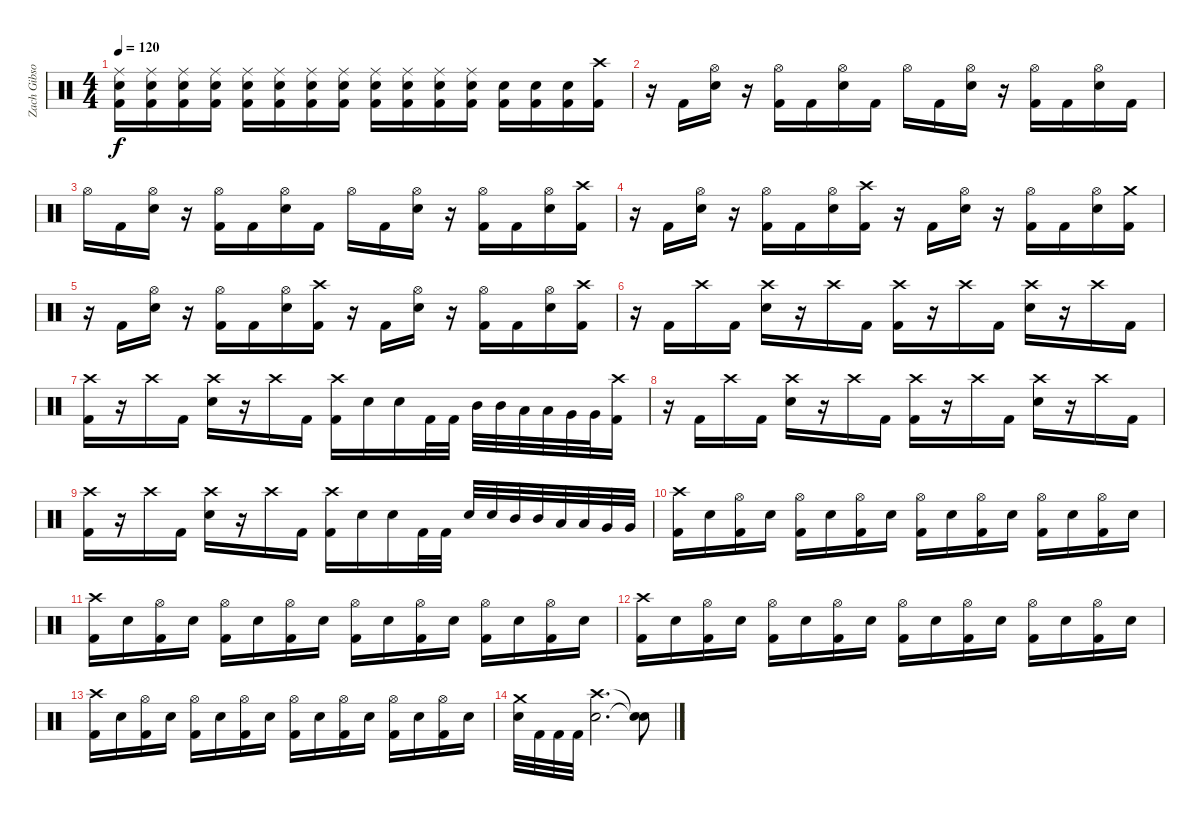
\track ("Zach Gibson" "Zach Gibso") {instrument percussion}
\staff {score}
\articulation defaults
\ts (4 4)
\tempo 120
\clef neutral
\ks c
("Ride (middle)" "Electric Snare (hit)" "Kick (hit) 2").16{dy f} ("Ride (middle)" "Electric Snare (hit)" "Kick (hit) 2").16 ("Ride (middle)" "Electric Snare (hit)" "Kick (hit) 2").16 ("Ride (middle)" "Electric Snare (hit)" "Kick (hit) 2").16 ("Ride (middle)" "Electric Snare (hit)" "Kick (hit) 2").16 ("Ride (middle)" "Electric Snare (hit)" "Kick (hit) 2").16 ("Ride (middle)" "Electric Snare (hit)" "Kick (hit) 2").16 ("Ride (middle)" "Electric Snare (hit)" "Kick (hit) 2").16 ("Ride (middle)" "Electric Snare (hit)" "Kick (hit) 2").16 ("Ride (middle)" "Electric Snare (hit)" "Kick (hit) 2").16 ("Ride (middle)" "Electric Snare (hit)" "Kick (hit) 2").16 ("Ride (middle)" "Electric Snare (hit)" "Kick (hit) 2").16 ("Electric Snare (hit)" "Kick (hit) 2").16 ("Electric Snare (hit)" "Kick (hit) 2").16 ("Electric Snare (hit)" "Kick (hit) 2").16 ("Crash high (hit)" "Kick (hit) 2").16 |
r.16 "Kick (hit) 2".16 ("Hi-Hat (open)" "Electric Snare (hit)").16 r.16 ("Hi-Hat (open)" "Kick (hit) 2").16 "Kick (hit) 2".16 ("Hi-Hat (open)" "Electric Snare (hit)").16 "Kick (hit) 2".16 "Hi-Hat (open)".16 "Kick (hit) 2".16 ("Hi-Hat (open)" "Electric Snare (hit)").16 r.16 ("Hi-Hat (open)" "Kick (hit) 2").16 "Kick (hit) 2".16 ("Hi-Hat (open)" "Electric Snare (hit)").16 "Kick (hit) 2".16 |
"Hi-Hat (open)".16 "Kick (hit) 2".16 ("Hi-Hat (open)" "Electric Snare (hit)").16 r.16 ("Hi-Hat (open)" "Kick (hit) 2").16 "Kick (hit) 2".16 ("Hi-Hat (open)" "Electric Snare (hit)").16 "Kick (hit) 2".16 "Hi-Hat (open)".16 "Kick (hit) 2".16 ("Hi-Hat (open)" "Electric Snare (hit)").16 r.16 ("Hi-Hat (open)" "Kick (hit) 2").16 "Kick (hit) 2".16 ("Hi-Hat (open)" "Electric Snare (hit)").16 ("Crash high (hit)" "Kick (hit) 2").16 |
r.16 "Kick (hit) 2".16 ("Hi-Hat (open)" "Electric Snare (hit)").16 r.16 ("Hi-Hat (open)" "Kick (hit) 2").16 "Kick (hit) 2".16 ("Hi-Hat (open)" "Electric Snare (hit)").16 ("Crash high (hit)" "Kick (hit) 2").16 r.16 "Kick (hit) 2".16 ("Hi-Hat (open)" "Electric Snare (hit)").16 r.16 ("Hi-Hat (open)" "Kick (hit) 2").16 "Kick (hit) 2".16 ("Hi-Hat (open)" "Electric Snare (hit)").16 ("Crash medium (hit)" "Kick (hit) 2").16 |
r.16 "Kick (hit) 2".16 ("Hi-Hat (open)" "Electric Snare (hit)").16 r.16 ("Hi-Hat (open)" "Kick (hit) 2").16 "Kick (hit) 2".16 ("Hi-Hat (open)" "Electric Snare (hit)").16 ("Crash high (hit)" "Kick (hit) 2").16 r.16 "Kick (hit) 2".16 ("Hi-Hat (open)" "Electric Snare (hit)").16 r.16 ("Hi-Hat (open)" "Kick (hit) 2").16 "Kick (hit) 2".16 ("Hi-Hat (open)" "Electric Snare (hit)").16 ("Crash high (hit)" "Kick (hit) 2").16 |
r.16 "Kick (hit) 2".16 "Crash high (hit)".16 "Kick (hit) 2".16 ("Crash high (hit)" "Electric Snare (hit)").16 r.16 "Crash high (hit)".16 "Kick (hit) 2".16 ("Crash high (hit)" "Kick (hit) 2").16 r.16 "Crash high (hit)".16 "Kick (hit) 2".16 ("Crash high (hit)" "Electric Snare (hit)").16 r.16 "Crash high (hit)".16 "Kick (hit) 2".16 |
("Crash high (hit)" "Kick (hit) 2").16 r.16 "Crash high (hit)".16 "Kick (hit) 2".16 ("Crash high (hit)" "Electric Snare (hit)").16 r.16 "Crash high (hit)".16 "Kick (hit) 2".16 ("Crash high (hit)" "Kick (hit) 2").16 "Electric Snare (hit)".16 "Electric Snare (hit)".16 "Kick (hit) 2".32 "Kick (hit) 2".32 "Mid Tom (hit)".32 "Mid Tom (hit)".32 "Low Tom (hit)".32 "Low Tom (hit)".32 "Very Low Tom (hit)".32 "Very Low Tom (hit)".32 ("Crash high (hit)" "Kick (hit) 2").16 |
r.16 "Kick (hit) 2".16 "Crash high (hit)".16 "Kick (hit) 2".16 ("Crash high (hit)" "Electric Snare (hit)").16 r.16 "Crash high (hit)".16 "Kick (hit) 2".16 ("Crash high (hit)" "Kick (hit) 2").16 r.16 "Crash high (hit)".16 "Kick (hit) 2".16 ("Crash high (hit)" "Electric Snare (hit)").16 r.16 "Crash high (hit)".16 "Kick (hit) 2".16 |
("Crash high (hit)" "Kick (hit) 2").16 r.16 "Crash high (hit)".16 "Kick (hit) 2".16 ("Crash high (hit)" "Electric Snare (hit)").16 r.16 "Crash high (hit)".16 "Kick (hit) 2".16 ("Crash high (hit)" "Kick (hit) 2").16 "Electric Snare (hit)".16 "Electric Snare (hit)".16 "Kick (hit) 2".32 "Kick (hit) 2".32 "Electric Snare (hit)".32 "Electric Snare (hit)".32 "Mid Tom (hit)".32 "Mid Tom (hit)".32 "Low Tom (hit)".32 "Low Tom (hit)".32 "Very Low Tom (hit)".32 "Very Low Tom (hit)".32 |
("Crash high (hit)" "Kick (hit) 2").16 "Electric Snare (hit)".16 ("Hi-Hat (open)" "Kick (hit) 2").16 "Electric Snare (hit)".16 ("Hi-Hat (open)" "Kick (hit) 2").16 "Electric Snare (hit)".16 ("Hi-Hat (open)" "Kick (hit) 2").16 "Electric Snare (hit)".16 ("Hi-Hat (open)" "Kick (hit) 2").16 "Electric Snare (hit)".16 ("Hi-Hat (open)" "Kick (hit) 2").16 "Electric Snare (hit)".16 ("Hi-Hat (open)" "Kick (hit) 2").16 "Electric Snare (hit)".16 ("Hi-Hat (open)" "Kick (hit) 2").16 "Electric Snare (hit)".16 |
("Crash high (hit)" "Kick (hit) 2").16 "Electric Snare (hit)".16 ("Hi-Hat (open)" "Kick (hit) 2").16 "Electric Snare (hit)".16 ("Hi-Hat (open)" "Kick (hit) 2").16 "Electric Snare (hit)".16 ("Hi-Hat (open)" "Kick (hit) 2").16 "Electric Snare (hit)".16 ("Hi-Hat (open)" "Kick (hit) 2").16 "Electric Snare (hit)".16 ("Hi-Hat (open)" "Kick (hit) 2").16 "Electric Snare (hit)".16 ("Hi-Hat (open)" "Kick (hit) 2").16 "Electric Snare (hit)".16 ("Hi-Hat (open)" "Kick (hit) 2").16 "Electric Snare (hit)".16 |
("Crash high (hit)" "Kick (hit) 2").16 "Electric Snare (hit)".16 ("Hi-Hat (open)" "Kick (hit) 2").16 "Electric Snare (hit)".16 ("Hi-Hat (open)" "Kick (hit) 2").16 "Electric Snare (hit)".16 ("Hi-Hat (open)" "Kick (hit) 2").16 "Electric Snare (hit)".16 ("Hi-Hat (open)" "Kick (hit) 2").16 "Electric Snare (hit)".16 ("Hi-Hat (open)" "Kick (hit) 2").16 "Electric Snare (hit)".16 ("Hi-Hat (open)" "Kick (hit) 2").16 "Electric Snare (hit)".16 ("Hi-Hat (open)" "Kick (hit) 2").16 "Electric Snare (hit)".16 |
("Crash high (hit)" "Kick (hit) 2").16 "Electric Snare (hit)".16 ("Hi-Hat (open)" "Kick (hit) 2").16 "Electric Snare (hit)".16 ("Hi-Hat (open)" "Kick (hit) 2").16 "Electric Snare (hit)".16 ("Hi-Hat (open)" "Kick (hit) 2").16 "Electric Snare (hit)".16 ("Hi-Hat (open)" "Kick (hit) 2").16 "Electric Snare (hit)".16 ("Hi-Hat (open)" "Kick (hit) 2").16 "Electric Snare (hit)".16 ("Hi-Hat (open)" "Kick (hit) 2").16 "Electric Snare (hit)".16 ("Hi-Hat (open)" "Kick (hit) 2").16 "Electric Snare (hit)".16 |
("Crash medium (hit)" "Electric Snare (hit)").32 "Kick (hit) 2".32 "Kick (hit) 2".32 "Kick (hit) 2".32 ("Crash high (hit)" "Electric Snare (hit)").2{d} ("Snare (hit)"{t} "Snare (hit)"{t}).8
